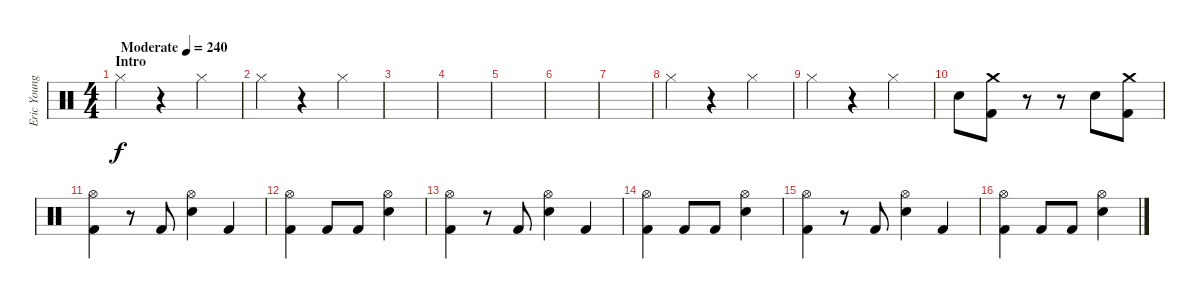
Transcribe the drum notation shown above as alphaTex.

\track ("Eric Young (Drums)" "Eric Young") {instrument percussion}
\staff {score}
\articulation defaults
\ts (4 4)
\section ("" "Intro")
\tempo (240 "Moderate")
\clef neutral
\ks c "Hi-Hat (closed)".4{dy f}
r.4 "Hi-Hat (closed)".4 |
"Hi-Hat (closed)".4 r.4 "Hi-Hat (closed)".4 |
|
|
|
|
|
"Hi-Hat (closed)".4 r.4 "Hi-Hat (closed)".4 |
"Hi-Hat (closed)".4 r.4 "Hi-Hat (closed)".4 |
"Snare (hit) 2".8 ("Kick (hit) 2" "Crash medium (hit)").8 r.8 r.8 "Snare (hit) 2".8 ("Kick (hit) 2" "Crash medium (hit)").8 |
("Hi-Hat (open)" "Kick (hit) 2").4 r.8 "Kick (hit) 2".8 ("Hi-Hat (open)" "Snare (hit) 2").4 "Kick (hit) 2".4 |
("Hi-Hat (open)" "Kick (hit) 2").4 "Kick (hit) 2".8 "Kick (hit) 2".8 ("Hi-Hat (open)" "Snare (hit) 2").4 |
("Hi-Hat (open)" "Kick (hit) 2").4 r.8 "Kick (hit) 2".8 ("Hi-Hat (open)" "Snare (hit) 2").4 "Kick (hit) 2".4 |
("Hi-Hat (open)" "Kick (hit) 2").4 "Kick (hit) 2".8 "Kick (hit) 2".8 ("Hi-Hat (open)" "Snare (hit) 2").4 |
("Hi-Hat (open)" "Kick (hit) 2").4 r.8 "Kick (hit) 2".8 ("Hi-Hat (open)" "Snare (hit) 2").4 "Kick (hit) 2".4 |
("Hi-Hat (open)" "Kick (hit) 2").4 "Kick (hit) 2".8 "Kick (hit) 2".8 ("Hi-Hat (open)" "Snare (hit) 2").4
